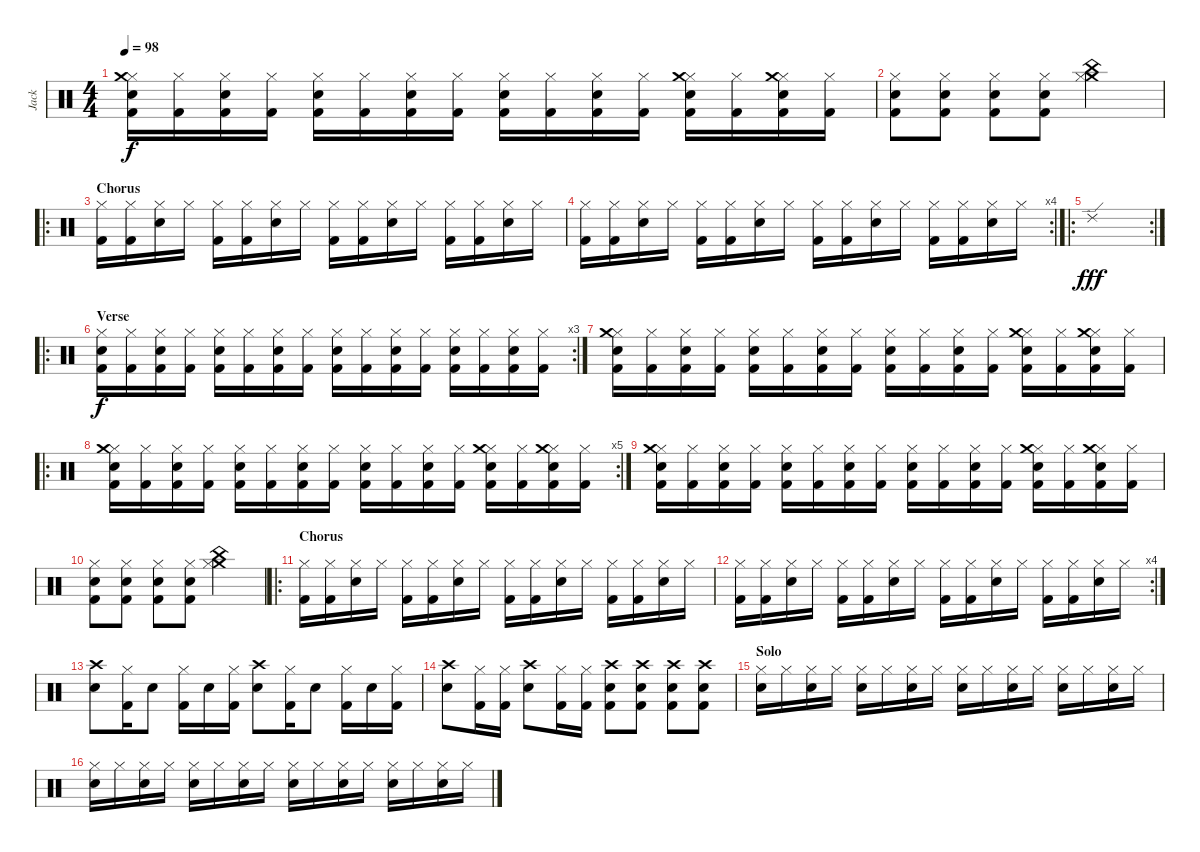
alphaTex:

\track ("Jack" "Jack") {instrument percussion}
\staff {score}
\articulation defaults
\ts (4 4)
\tempo 98
\clef neutral
\ks c
("Hi-Hat (closed)" "Snare (hit) 2" "Crash medium (hit)" "Kick (hit) 2").16{dy f} ("Hi-Hat (closed)" "Kick (hit) 2").16 ("Hi-Hat (closed)" "Snare (hit) 2" "Kick (hit) 2").16 ("Hi-Hat (closed)" "Kick (hit) 2").16 ("Hi-Hat (closed)" "Snare (hit) 2" "Kick (hit) 2").16 ("Hi-Hat (closed)" "Kick (hit) 2").16 ("Hi-Hat (closed)" "Snare (hit) 2" "Kick (hit) 2").16 ("Hi-Hat (closed)" "Kick (hit) 2").16 ("Hi-Hat (closed)" "Snare (hit) 2" "Kick (hit) 2").16 ("Hi-Hat (closed)" "Kick (hit) 2").16 ("Hi-Hat (closed)" "Snare (hit) 2" "Kick (hit) 2").16 ("Hi-Hat (closed)" "Kick (hit) 2").16 ("Hi-Hat (closed)" "Snare (hit) 2" "Crash medium (hit)" "Kick (hit) 2").16 ("Hi-Hat (closed)" "Kick (hit) 2").16 ("Hi-Hat (closed)" "Snare (hit) 2" "Crash medium (hit)" "Kick (hit) 2").16 ("Hi-Hat (closed)" "Kick (hit) 2").16 |
("Hi-Hat (closed)" "Snare (hit) 2" "Kick (hit) 2").8 ("Hi-Hat (closed)" "Snare (hit) 2" "Kick (hit) 2").8 ("Hi-Hat (closed)" "Snare (hit) 2" "Kick (hit) 2").8 ("Hi-Hat (closed)" "Snare (hit) 2" "Kick (hit) 2").8 ("Crash medium (hit)" "China (hit)" "Hi-Hat (closed)").2 |
\ro
\section ("" "Chorus")
("Hi-Hat (closed)" "Kick (hit) 2").16 ("Hi-Hat (closed)" "Kick (hit) 2").16 ("Hi-Hat (closed)" "Snare (hit) 2").16 "Hi-Hat (closed)".16 ("Hi-Hat (closed)" "Kick (hit) 2").16 ("Hi-Hat (closed)" "Kick (hit) 2").16 ("Hi-Hat (closed)" "Snare (hit) 2").16 "Hi-Hat (closed)".16 ("Hi-Hat (closed)" "Kick (hit) 2").16 ("Hi-Hat (closed)" "Kick (hit) 2").16 ("Hi-Hat (closed)" "Snare (hit) 2").16 "Hi-Hat (closed)".16 ("Hi-Hat (closed)" "Kick (hit) 2").16 ("Hi-Hat (closed)" "Kick (hit) 2").16 ("Hi-Hat (closed)" "Snare (hit) 2").16 "Hi-Hat (closed)".16 |
\rc 4
("Hi-Hat (closed)" "Kick (hit) 2").16 ("Hi-Hat (closed)" "Kick (hit) 2").16 ("Hi-Hat (closed)" "Snare (hit) 2").16 "Hi-Hat (closed)".16 ("Hi-Hat (closed)" "Kick (hit) 2").16 ("Hi-Hat (closed)" "Kick (hit) 2").16 ("Hi-Hat (closed)" "Snare (hit) 2").16 "Hi-Hat (closed)".16 ("Hi-Hat (closed)" "Kick (hit) 2").16 ("Hi-Hat (closed)" "Kick (hit) 2").16 ("Hi-Hat (closed)" "Snare (hit) 2").16 "Hi-Hat (closed)".16 ("Hi-Hat (closed)" "Kick (hit) 2").16 ("Hi-Hat (closed)" "Kick (hit) 2").16 ("Hi-Hat (closed)" "Snare (hit) 2").16 "Hi-Hat (closed)".16 |
\ro
\rc 2 "Ride (edge) 2".1{dy fff}
|
\ro
\rc 3
\section ("" "Verse")
("Hi-Hat (closed)" "Snare (hit) 2" "Kick (hit) 2").16{dy f} ("Hi-Hat (closed)" "Kick (hit) 2").16 ("Hi-Hat (closed)" "Snare (hit) 2" "Kick (hit) 2").16 ("Hi-Hat (closed)" "Kick (hit) 2").16 ("Hi-Hat (closed)" "Snare (hit) 2" "Kick (hit) 2").16 ("Hi-Hat (closed)" "Kick (hit) 2").16 ("Hi-Hat (closed)" "Snare (hit) 2" "Kick (hit) 2").16 ("Hi-Hat (closed)" "Kick (hit) 2").16 ("Hi-Hat (closed)" "Snare (hit) 2" "Kick (hit) 2").16 ("Hi-Hat (closed)" "Kick (hit) 2").16 ("Hi-Hat (closed)" "Snare (hit) 2" "Kick (hit) 2").16 ("Hi-Hat (closed)" "Kick (hit) 2").16 ("Hi-Hat (closed)" "Snare (hit) 2" "Kick (hit) 2").16 ("Hi-Hat (closed)" "Kick (hit) 2").16 ("Hi-Hat (closed)" "Snare (hit) 2" "Kick (hit) 2").16 ("Hi-Hat (closed)" "Kick (hit) 2").16 |
("Hi-Hat (closed)" "Snare (hit) 2" "Crash medium (hit)" "Kick (hit) 2").16 ("Hi-Hat (closed)" "Kick (hit) 2").16 ("Hi-Hat (closed)" "Snare (hit) 2" "Kick (hit) 2").16 ("Hi-Hat (closed)" "Kick (hit) 2").16 ("Hi-Hat (closed)" "Snare (hit) 2" "Kick (hit) 2").16 ("Hi-Hat (closed)" "Kick (hit) 2").16 ("Hi-Hat (closed)" "Snare (hit) 2" "Kick (hit) 2").16 ("Hi-Hat (closed)" "Kick (hit) 2").16 ("Hi-Hat (closed)" "Snare (hit) 2" "Kick (hit) 2").16 ("Hi-Hat (closed)" "Kick (hit) 2").16 ("Hi-Hat (closed)" "Snare (hit) 2" "Kick (hit) 2").16 ("Hi-Hat (closed)" "Kick (hit) 2").16 ("Hi-Hat (closed)" "Snare (hit) 2" "Crash medium (hit)" "Kick (hit) 2").16 ("Hi-Hat (closed)" "Kick (hit) 2").16 ("Hi-Hat (closed)" "Snare (hit) 2" "Crash medium (hit)" "Kick (hit) 2").16 ("Hi-Hat (closed)" "Kick (hit) 2").16 |
\ro
\rc 5
("Hi-Hat (closed)" "Snare (hit) 2" "Crash medium (hit)" "Kick (hit) 2").16 ("Hi-Hat (closed)" "Kick (hit) 2").16 ("Hi-Hat (closed)" "Snare (hit) 2" "Kick (hit) 2").16 ("Hi-Hat (closed)" "Kick (hit) 2").16 ("Hi-Hat (closed)" "Snare (hit) 2" "Kick (hit) 2").16 ("Hi-Hat (closed)" "Kick (hit) 2").16 ("Hi-Hat (closed)" "Snare (hit) 2" "Kick (hit) 2").16 ("Hi-Hat (closed)" "Kick (hit) 2").16 ("Hi-Hat (closed)" "Snare (hit) 2" "Kick (hit) 2").16 ("Hi-Hat (closed)" "Kick (hit) 2").16 ("Hi-Hat (closed)" "Snare (hit) 2" "Kick (hit) 2").16 ("Hi-Hat (closed)" "Kick (hit) 2").16 ("Hi-Hat (closed)" "Snare (hit) 2" "Crash medium (hit)" "Kick (hit) 2").16 ("Hi-Hat (closed)" "Kick (hit) 2").16 ("Hi-Hat (closed)" "Snare (hit) 2" "Crash medium (hit)" "Kick (hit) 2").16 ("Hi-Hat (closed)" "Kick (hit) 2").16 |
("Hi-Hat (closed)" "Snare (hit) 2" "Crash medium (hit)" "Kick (hit) 2").16 ("Hi-Hat (closed)" "Kick (hit) 2").16 ("Hi-Hat (closed)" "Snare (hit) 2" "Kick (hit) 2").16 ("Hi-Hat (closed)" "Kick (hit) 2").16 ("Hi-Hat (closed)" "Snare (hit) 2" "Kick (hit) 2").16 ("Hi-Hat (closed)" "Kick (hit) 2").16 ("Hi-Hat (closed)" "Snare (hit) 2" "Kick (hit) 2").16 ("Hi-Hat (closed)" "Kick (hit) 2").16 ("Hi-Hat (closed)" "Snare (hit) 2" "Kick (hit) 2").16 ("Hi-Hat (closed)" "Kick (hit) 2").16 ("Hi-Hat (closed)" "Snare (hit) 2" "Kick (hit) 2").16 ("Hi-Hat (closed)" "Kick (hit) 2").16 ("Hi-Hat (closed)" "Snare (hit) 2" "Crash medium (hit)" "Kick (hit) 2").16 ("Hi-Hat (closed)" "Kick (hit) 2").16 ("Hi-Hat (closed)" "Snare (hit) 2" "Crash medium (hit)" "Kick (hit) 2").16 ("Hi-Hat (closed)" "Kick (hit) 2").16 |
("Hi-Hat (closed)" "Snare (hit) 2" "Kick (hit) 2").8 ("Hi-Hat (closed)" "Snare (hit) 2" "Kick (hit) 2").8 ("Hi-Hat (closed)" "Snare (hit) 2" "Kick (hit) 2").8 ("Hi-Hat (closed)" "Snare (hit) 2" "Kick (hit) 2").8 ("Crash medium (hit)" "China (hit)" "Hi-Hat (closed)").2 |
\ro
\section ("" "Chorus")
("Hi-Hat (closed)" "Kick (hit) 2").16 ("Hi-Hat (closed)" "Kick (hit) 2").16 ("Hi-Hat (closed)" "Snare (hit) 2").16 "Hi-Hat (closed)".16 ("Hi-Hat (closed)" "Kick (hit) 2").16 ("Hi-Hat (closed)" "Kick (hit) 2").16 ("Hi-Hat (closed)" "Snare (hit) 2").16 "Hi-Hat (closed)".16 ("Hi-Hat (closed)" "Kick (hit) 2").16 ("Hi-Hat (closed)" "Kick (hit) 2").16 ("Hi-Hat (closed)" "Snare (hit) 2").16 "Hi-Hat (closed)".16 ("Hi-Hat (closed)" "Kick (hit) 2").16 ("Hi-Hat (closed)" "Kick (hit) 2").16 ("Hi-Hat (closed)" "Snare (hit) 2").16 "Hi-Hat (closed)".16 |
\rc 4
("Hi-Hat (closed)" "Kick (hit) 2").16 ("Hi-Hat (closed)" "Kick (hit) 2").16 ("Hi-Hat (closed)" "Snare (hit) 2").16 "Hi-Hat (closed)".16 ("Hi-Hat (closed)" "Kick (hit) 2").16 ("Hi-Hat (closed)" "Kick (hit) 2").16 ("Hi-Hat (closed)" "Snare (hit) 2").16 "Hi-Hat (closed)".16 ("Hi-Hat (closed)" "Kick (hit) 2").16 ("Hi-Hat (closed)" "Kick (hit) 2").16 ("Hi-Hat (closed)" "Snare (hit) 2").16 "Hi-Hat (closed)".16 ("Hi-Hat (closed)" "Kick (hit) 2").16 ("Hi-Hat (closed)" "Kick (hit) 2").16 ("Hi-Hat (closed)" "Snare (hit) 2").16 "Hi-Hat (closed)".16 |
("Snare (hit) 2" "Crash high (hit)").8 ("Kick (hit) 2" "Hi-Hat (closed)").16 "Snare (hit) 2".8 ("Kick (hit) 2" "Hi-Hat (closed)").16 "Snare (hit) 2".16 ("Kick (hit) 2" "Hi-Hat (closed)").16 ("Snare (hit) 2" "Crash high (hit)").8 ("Kick (hit) 2" "Hi-Hat (closed)").16 "Snare (hit) 2".8 ("Kick (hit) 2" "Hi-Hat (closed)").16 "Snare (hit) 2".16 ("Kick (hit) 2" "Hi-Hat (closed)").16 |
("Snare (hit) 2" "Crash high (hit)").8 ("Kick (hit) 2" "Hi-Hat (closed)").16 ("Kick (hit) 2" "Hi-Hat (closed)").16 ("Snare (hit) 2" "Crash high (hit)").8 ("Kick (hit) 2" "Hi-Hat (closed)").16 ("Kick (hit) 2" "Hi-Hat (closed)").16 ("Crash high (hit)" "Snare (hit) 2" "Kick (hit) 2").8 ("Crash high (hit)" "Snare (hit) 2" "Kick (hit) 2").8 ("Kick (hit) 2" "Crash high (hit)" "Snare (hit) 2").8 ("Crash high (hit)" "Kick (hit) 2" "Snare (hit) 2").8 |
\section ("" "Solo")
("Hi-Hat (closed)" "Snare (hit) 2").16 "Hi-Hat (closed)".16 ("Hi-Hat (closed)" "Snare (hit) 2").16 "Hi-Hat (closed)".16 ("Hi-Hat (closed)" "Snare (hit) 2").16 "Hi-Hat (closed)".16 ("Hi-Hat (closed)" "Snare (hit) 2").16 "Hi-Hat (closed)".16 ("Hi-Hat (closed)" "Snare (hit) 2").16 "Hi-Hat (closed)".16 ("Hi-Hat (closed)" "Snare (hit) 2").16 "Hi-Hat (closed)".16 ("Hi-Hat (closed)" "Snare (hit) 2").16 "Hi-Hat (closed)".16 ("Hi-Hat (closed)" "Snare (hit) 2").16 "Hi-Hat (closed)".16 |
("Hi-Hat (closed)" "Snare (hit) 2").16 "Hi-Hat (closed)".16 ("Hi-Hat (closed)" "Snare (hit) 2").16 "Hi-Hat (closed)".16 ("Hi-Hat (closed)" "Snare (hit) 2").16 "Hi-Hat (closed)".16 ("Hi-Hat (closed)" "Snare (hit) 2").16 "Hi-Hat (closed)".16 ("Hi-Hat (closed)" "Snare (hit) 2").16 "Hi-Hat (closed)".16 ("Hi-Hat (closed)" "Snare (hit) 2").16 "Hi-Hat (closed)".16 ("Hi-Hat (closed)" "Snare (hit) 2").16 "Hi-Hat (closed)".16 ("Hi-Hat (closed)" "Snare (hit) 2").16 "Hi-Hat (closed)".16
